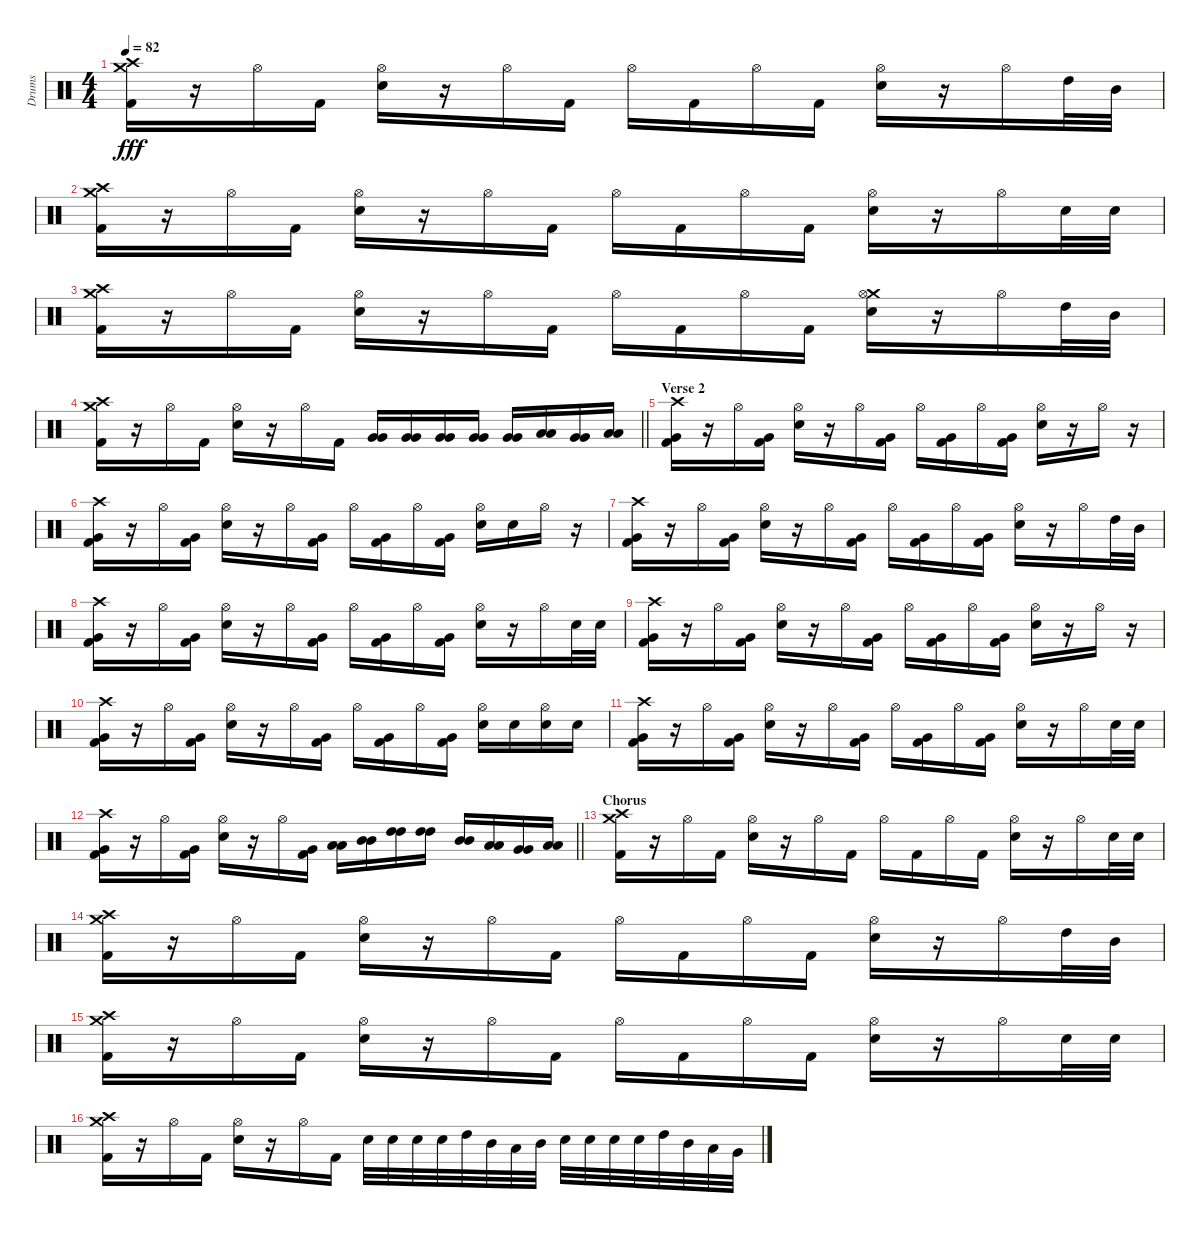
\track ("Drums" "Drums") {instrument percussion}
\staff {score}
\articulation defaults
\ts (4 4)
\tempo 82
\clef neutral
\ks c
("Crash high (hit)" "Crash medium (hit)" "Kick (hit) 2").16{dy fff} r.16 "Hi-Hat (open)".16 "Kick (hit) 2".16 ("Hi-Hat (open)" "Electric Snare (hit)").16 r.16 "Hi-Hat (open)".16 "Kick (hit) 2".16 "Hi-Hat (open)".16 "Kick (hit) 2".16 "Hi-Hat (open)".16 "Kick (hit) 2".16 ("Hi-Hat (open)" "Electric Snare (hit)").16 r.16 "Hi-Hat (open)".16 "High Tom (hit)".32 "Mid Tom (hit)".32 |
("Crash high (hit)" "Crash medium (hit)" "Kick (hit) 2").16 r.16 "Hi-Hat (open)".16 "Kick (hit) 2".16 ("Hi-Hat (open)" "Electric Snare (hit)").16 r.16 "Hi-Hat (open)".16 "Kick (hit) 2".16 "Hi-Hat (open)".16 "Kick (hit) 2".16 "Hi-Hat (open)".16 "Kick (hit) 2".16 ("Hi-Hat (open)" "Electric Snare (hit)").16 r.16 "Hi-Hat (open)".16 "Electric Snare (hit)".32 "Electric Snare (hit)".32 |
("Crash high (hit)" "Crash medium (hit)" "Kick (hit) 2").16 r.16 "Hi-Hat (open)".16 "Kick (hit) 2".16 ("Hi-Hat (open)" "Electric Snare (hit)").16 r.16 "Hi-Hat (open)".16 "Kick (hit) 2".16 "Hi-Hat (open)".16 "Kick (hit) 2".16 "Hi-Hat (open)".16 "Kick (hit) 2".16 ("Crash medium (hit)" "Hi-Hat (open)" "Electric Snare (hit)").16 r.16 "Hi-Hat (open)".16 "High Tom (hit)".32 "Mid Tom (hit)".32 |
\barLineRight lightlight
("Crash high (hit)" "Crash medium (hit)" "Kick (hit) 2").16 r.16 "Hi-Hat (open)".16 "Kick (hit) 2".16 ("Hi-Hat (open)" "Electric Snare (hit)").16 r.16 "Hi-Hat (open)".16 "Kick (hit) 2".16 ("Very Low Tom (hit)" "Very Low Tom (hit)").16 ("Very Low Tom (hit)" "Very Low Tom (hit)").16 ("Very Low Tom (hit)" "Very Low Tom (hit)").16 ("Very Low Tom (hit)" "Very Low Tom (hit)").16 ("Very Low Tom (hit)" "Very Low Tom (hit)").16 ("Low Tom (hit)" "Low Tom (hit)").16 ("Very Low Tom (hit)" "Very Low Tom (hit)").16 ("Low Floor Tom (hit)" "Low Floor Tom (hit)").16 |
\section ("" "Verse 2")
("Crash high (hit)" "Very Low Tom (hit)" "Kick (hit) 2").16 r.16 "Hi-Hat (open)".16 ("Very Low Tom (hit)" "Kick (hit) 2").16 ("Hi-Hat (open)" "Electric Snare (hit)").16 r.16 "Hi-Hat (open)".16 ("Very Low Tom (hit)" "Kick (hit) 2").16 "Hi-Hat (open)".16 ("Very Low Tom (hit)" "Kick (hit) 2").16 "Hi-Hat (open)".16 ("Very Low Tom (hit)" "Kick (hit) 2").16 ("Hi-Hat (open)" "Electric Snare (hit)").16 r.16 "Hi-Hat (open)".16 r.16 |
("Crash high (hit)" "Very Low Tom (hit)" "Kick (hit) 2").16 r.16 "Hi-Hat (open)".16 ("Very Low Tom (hit)" "Kick (hit) 2").16 ("Hi-Hat (open)" "Electric Snare (hit)").16 r.16 "Hi-Hat (open)".16 ("Very Low Tom (hit)" "Kick (hit) 2").16 "Hi-Hat (open)".16 ("Very Low Tom (hit)" "Kick (hit) 2").16 "Hi-Hat (open)".16 ("Very Low Tom (hit)" "Kick (hit) 2").16 ("Hi-Hat (open)" "Electric Snare (hit)").16 "Electric Snare (hit)".16 "Hi-Hat (open)".16 r.16 |
("Crash high (hit)" "Very Low Tom (hit)" "Kick (hit) 2").16 r.16 "Hi-Hat (open)".16 ("Very Low Tom (hit)" "Kick (hit) 2").16 ("Hi-Hat (open)" "Electric Snare (hit)").16 r.16 "Hi-Hat (open)".16 ("Very Low Tom (hit)" "Kick (hit) 2").16 "Hi-Hat (open)".16 ("Very Low Tom (hit)" "Kick (hit) 2").16 "Hi-Hat (open)".16 ("Very Low Tom (hit)" "Kick (hit) 2").16 ("Hi-Hat (open)" "Electric Snare (hit)").16 r.16 "Hi-Hat (open)".16 "High Tom (hit)".32 "Mid Tom (hit)".32 |
("Crash high (hit)" "Very Low Tom (hit)" "Kick (hit) 2").16 r.16 "Hi-Hat (open)".16 ("Very Low Tom (hit)" "Kick (hit) 2").16 ("Hi-Hat (open)" "Electric Snare (hit)").16 r.16 "Hi-Hat (open)".16 ("Very Low Tom (hit)" "Kick (hit) 2").16 "Hi-Hat (open)".16 ("Very Low Tom (hit)" "Kick (hit) 2").16 "Hi-Hat (open)".16 ("Very Low Tom (hit)" "Kick (hit) 2").16 ("Hi-Hat (open)" "Electric Snare (hit)").16 r.16 "Hi-Hat (open)".16 "Electric Snare (hit)".32 "Electric Snare (hit)".32 |
("Crash high (hit)" "Very Low Tom (hit)" "Kick (hit) 2").16 r.16 "Hi-Hat (open)".16 ("Very Low Tom (hit)" "Kick (hit) 2").16 ("Hi-Hat (open)" "Electric Snare (hit)").16 r.16 "Hi-Hat (open)".16 ("Very Low Tom (hit)" "Kick (hit) 2").16 "Hi-Hat (open)".16 ("Very Low Tom (hit)" "Kick (hit) 2").16 "Hi-Hat (open)".16 ("Very Low Tom (hit)" "Kick (hit) 2").16 ("Hi-Hat (open)" "Electric Snare (hit)").16 r.16 "Hi-Hat (open)".16 r.16 |
("Crash high (hit)" "Very Low Tom (hit)" "Kick (hit) 2").16 r.16 "Hi-Hat (open)".16 ("Very Low Tom (hit)" "Kick (hit) 2").16 ("Hi-Hat (open)" "Electric Snare (hit)").16 r.16 "Hi-Hat (open)".16 ("Very Low Tom (hit)" "Kick (hit) 2").16 "Hi-Hat (open)".16 ("Very Low Tom (hit)" "Kick (hit) 2").16 "Hi-Hat (open)".16 ("Very Low Tom (hit)" "Kick (hit) 2").16 ("Hi-Hat (open)" "Electric Snare (hit)").16 "Electric Snare (hit)".16 ("Hi-Hat (open)" "Electric Snare (hit)").16 "Electric Snare (hit)".16 |
("Crash high (hit)" "Very Low Tom (hit)" "Kick (hit) 2").16 r.16 "Hi-Hat (open)".16 ("Very Low Tom (hit)" "Kick (hit) 2").16 ("Hi-Hat (open)" "Electric Snare (hit)").16 r.16 "Hi-Hat (open)".16 ("Very Low Tom (hit)" "Kick (hit) 2").16 "Hi-Hat (open)".16 ("Very Low Tom (hit)" "Kick (hit) 2").16 "Hi-Hat (open)".16 ("Very Low Tom (hit)" "Kick (hit) 2").16 ("Hi-Hat (open)" "Electric Snare (hit)").16 r.16 "Hi-Hat (open)".16 "Electric Snare (hit)".32 "Electric Snare (hit)".32 |
\barLineRight lightlight
("Crash high (hit)" "Very Low Tom (hit)" "Kick (hit) 2").16 r.16 "Hi-Hat (open)".16 ("Very Low Tom (hit)" "Kick (hit) 2").16 ("Hi-Hat (open)" "Electric Snare (hit)").16 r.16 "Hi-Hat (open)".16 ("Very Low Tom (hit)" "Kick (hit) 2").16 ("Low Tom (hit)" "Low Tom (hit)").16 ("Mid Tom (hit)" "Mid Tom (hit)").16 ("High Tom (hit)" "High Tom (hit)").16 ("High Tom (hit)" "High Tom (hit)").16 ("Mid Tom (hit)" "Mid Tom (hit)").16 ("Low Tom (hit)" "Low Tom (hit)").16 ("Very Low Tom (hit)" "Very Low Tom (hit)").16 ("Low Floor Tom (hit)" "Low Floor Tom (hit)").16 |
\section ("" "Chorus")
("Crash high (hit)" "Crash medium (hit)" "Kick (hit) 2").16 r.16 "Hi-Hat (open)".16 "Kick (hit) 2".16 ("Hi-Hat (open)" "Electric Snare (hit)").16 r.16 "Hi-Hat (open)".16 "Kick (hit) 2".16 "Hi-Hat (open)".16 "Kick (hit) 2".16 "Hi-Hat (open)".16 "Kick (hit) 2".16 ("Hi-Hat (open)" "Electric Snare (hit)").16 r.16 "Hi-Hat (open)".16 "Electric Snare (hit)".32 "Electric Snare (hit)".32 |
("Crash high (hit)" "Crash medium (hit)" "Kick (hit) 2").16 r.16 "Hi-Hat (open)".16 "Kick (hit) 2".16 ("Hi-Hat (open)" "Electric Snare (hit)").16 r.16 "Hi-Hat (open)".16 "Kick (hit) 2".16 "Hi-Hat (open)".16 "Kick (hit) 2".16 "Hi-Hat (open)".16 "Kick (hit) 2".16 ("Hi-Hat (open)" "Electric Snare (hit)").16 r.16 "Hi-Hat (open)".16 "High Tom (hit)".32 "Mid Tom (hit)".32 |
("Crash high (hit)" "Crash medium (hit)" "Kick (hit) 2").16 r.16 "Hi-Hat (open)".16 "Kick (hit) 2".16 ("Hi-Hat (open)" "Electric Snare (hit)").16 r.16 "Hi-Hat (open)".16 "Kick (hit) 2".16 "Hi-Hat (open)".16 "Kick (hit) 2".16 "Hi-Hat (open)".16 "Kick (hit) 2".16 ("Hi-Hat (open)" "Electric Snare (hit)").16 r.16 "Hi-Hat (open)".16 "Electric Snare (hit)".32 "Electric Snare (hit)".32 |
("Crash high (hit)" "Crash medium (hit)" "Kick (hit) 2").16 r.16 "Hi-Hat (open)".16 "Kick (hit) 2".16 ("Hi-Hat (open)" "Electric Snare (hit)").16 r.16 "Hi-Hat (open)".16 "Kick (hit) 2".16 "Electric Snare (hit)".32 "Electric Snare (hit)".32 "Electric Snare (hit)".32 "Electric Snare (hit)".32 "High Tom (hit)".32 "Mid Tom (hit)".32 "Low Tom (hit)".32 "Mid Tom (hit)".32 "Electric Snare (hit)".32 "Electric Snare (hit)".32 "Electric Snare (hit)".32 "Electric Snare (hit)".32 "High Tom (hit)".32 "Mid Tom (hit)".32 "Low Tom (hit)".32 "Very Low Tom (hit)".32
